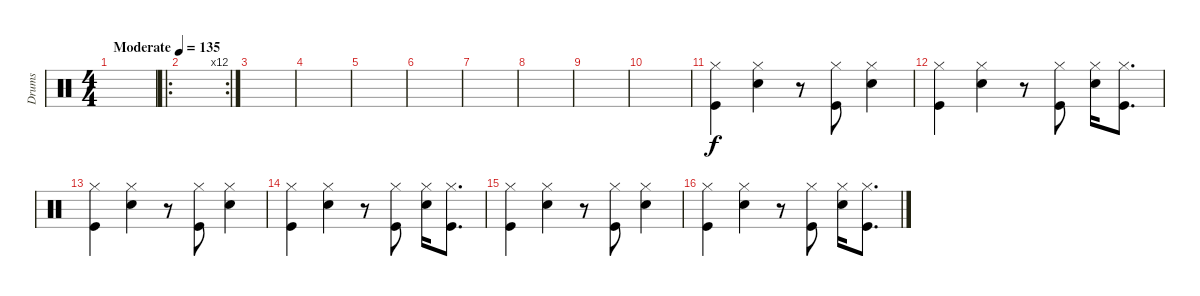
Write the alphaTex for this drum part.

\track ("Drums" "Drums") {instrument percussion}
\staff {score}
\articulation defaults
\ts (4 4)
\tempo (135 "Moderate")
\clef neutral
\ks c
|
\ro
\rc 12
|
|
|
|
|
|
|
|
|
("Hi-Hat (closed)" "Kick (hit)").4 ("Hi-Hat (closed)" "Snare (hit) 2").4 r.8 ("Hi-Hat (closed)" "Kick (hit)").8 ("Hi-Hat (closed)" "Snare (hit) 2").4 |
("Hi-Hat (closed)" "Kick (hit)").4 ("Hi-Hat (closed)" "Snare (hit) 2").4 r.8 ("Hi-Hat (closed)" "Kick (hit)").8 ("Hi-Hat (closed)" "Snare (hit) 2").16 ("Hi-Hat (closed)" "Kick (hit)").8{d} |
("Hi-Hat (closed)" "Kick (hit)").4 ("Hi-Hat (closed)" "Snare (hit) 2").4 r.8 ("Hi-Hat (closed)" "Kick (hit)").8 ("Hi-Hat (closed)" "Snare (hit) 2").4 |
("Hi-Hat (closed)" "Kick (hit)").4 ("Hi-Hat (closed)" "Snare (hit) 2").4 r.8 ("Hi-Hat (closed)" "Kick (hit)").8 ("Hi-Hat (closed)" "Snare (hit) 2").16 ("Hi-Hat (closed)" "Kick (hit)").8{d} |
("Hi-Hat (closed)" "Kick (hit)").4 ("Hi-Hat (closed)" "Snare (hit) 2").4 r.8 ("Hi-Hat (closed)" "Kick (hit)").8 ("Hi-Hat (closed)" "Snare (hit) 2").4 |
("Hi-Hat (closed)" "Kick (hit)").4 ("Hi-Hat (closed)" "Snare (hit) 2").4 r.8 ("Hi-Hat (closed)" "Kick (hit)").8 ("Hi-Hat (closed)" "Snare (hit) 2").16 ("Hi-Hat (closed)" "Kick (hit)").8{d}
